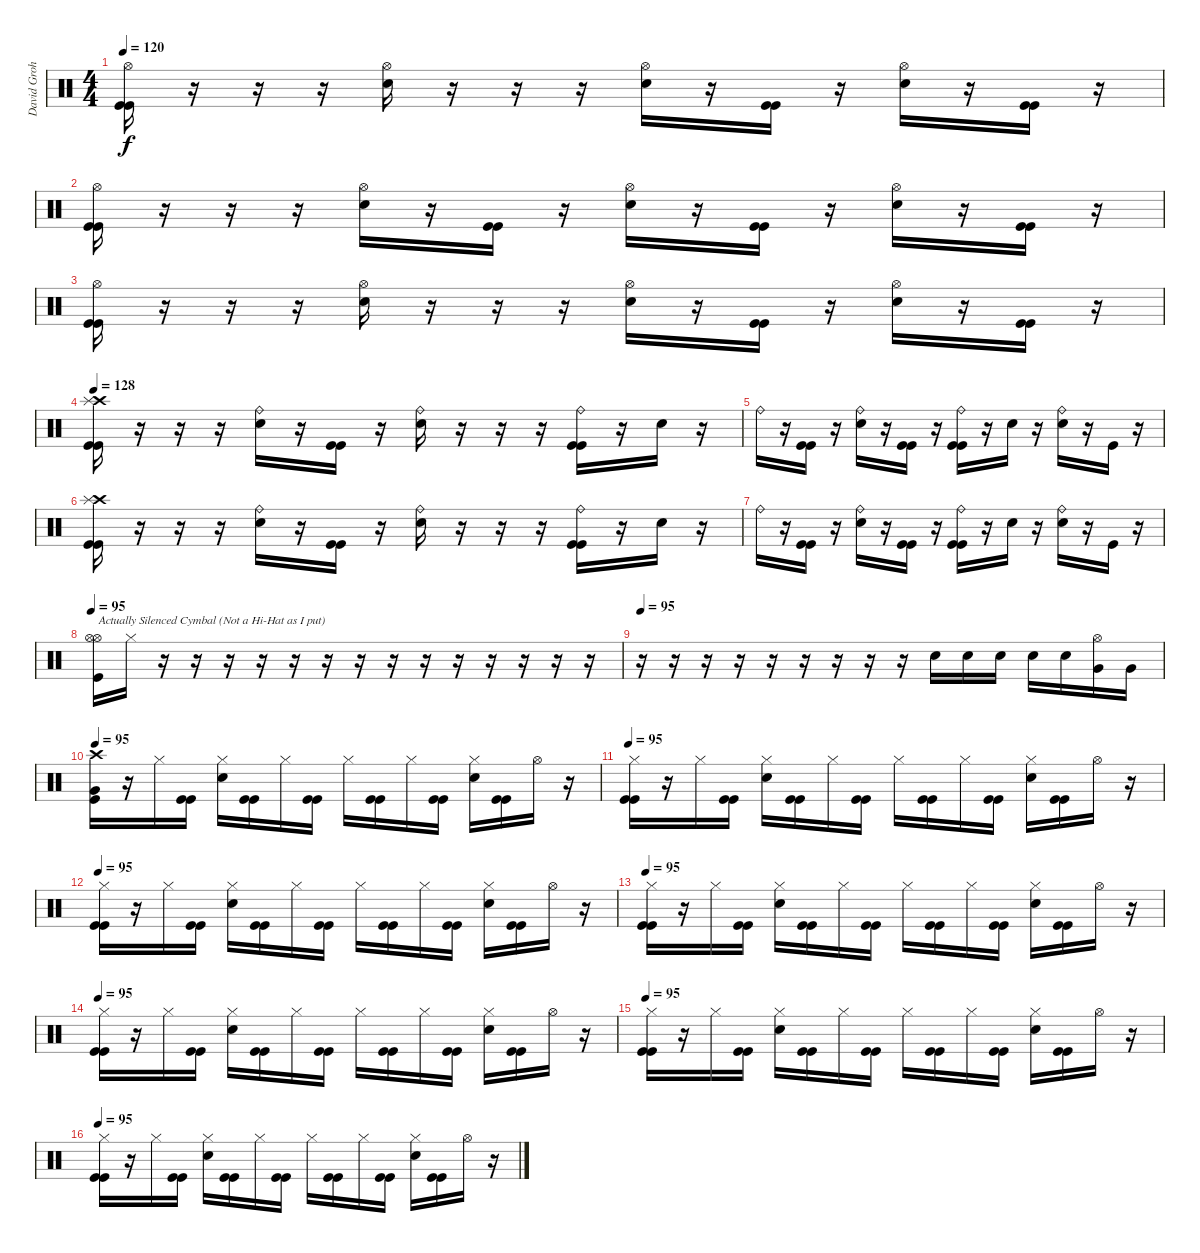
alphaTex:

\track ("David Grohl/Alfredo Ortiz" "David Groh") {instrument percussion}
\staff {score}
\articulation defaults
\ts (4 4)
\tempo 120
\clef neutral
\ks c
("Hi-Hat (open)" "Kick (hit)" "Kick (hit)").16{dy f} r.16 r.16 r.16 ("Hi-Hat (open)" "Snare (hit) 2").16 r.16 r.16 r.16 ("Hi-Hat (open)" "Snare (hit) 2").16 r.16 ("Kick (hit)" "Kick (hit)").16 r.16 ("Hi-Hat (open)" "Snare (hit) 2").16 r.16 ("Kick (hit)" "Kick (hit)").16 r.16 |
("Hi-Hat (open)" "Kick (hit)" "Kick (hit)").16 r.16 r.16 r.16 ("Hi-Hat (open)" "Snare (hit) 2").16 r.16 ("Kick (hit)" "Kick (hit)").16 r.16 ("Hi-Hat (open)" "Snare (hit) 2").16 r.16 ("Kick (hit)" "Kick (hit)").16 r.16 ("Hi-Hat (open)" "Snare (hit) 2").16 r.16 ("Kick (hit)" "Kick (hit)").16 r.16 |
("Hi-Hat (open)" "Kick (hit)" "Kick (hit)").16 r.16 r.16 r.16 ("Hi-Hat (open)" "Snare (hit) 2").16 r.16 r.16 r.16 ("Hi-Hat (open)" "Snare (hit) 2").16 r.16 ("Kick (hit)" "Kick (hit)").16 r.16 ("Hi-Hat (open)" "Snare (hit) 2").16 r.16 ("Kick (hit)" "Kick (hit)").16 r.16 |
\tempo 128
("Crash high (hit)" "Splash (hit)" "Kick (hit)" "Kick (hit)").16 r.16 r.16 r.16 ("Ride (bell)" "Snare (hit) 2").16 r.16 ("Kick (hit)" "Kick (hit)").16 r.16 ("Ride (bell)" "Snare (hit) 2").16 r.16 r.16 r.16 ("Ride (bell)" "Kick (hit)" "Kick (hit)").16 r.16 "Snare (hit) 2".16 r.16 |
"Ride (bell)".16 r.16 ("Kick (hit)" "Kick (hit)").16 r.16 ("Ride (bell)" "Snare (hit) 2").16 r.16 ("Kick (hit)" "Kick (hit)").16 r.16 ("Ride (bell)" "Kick (hit)" "Kick (hit)").16 r.16 "Snare (hit) 2".16 r.16 ("Ride (bell)" "Snare (hit) 2").16 r.16 "Kick (hit)".16 r.16 |
("Crash high (hit)" "Splash (hit)" "Kick (hit)" "Kick (hit)").16 r.16 r.16 r.16 ("Ride (bell)" "Snare (hit) 2").16 r.16 ("Kick (hit)" "Kick (hit)").16 r.16 ("Ride (bell)" "Snare (hit) 2").16 r.16 r.16 r.16 ("Ride (bell)" "Kick (hit)" "Kick (hit)").16 r.16 "Snare (hit) 2".16 r.16 |
"Ride (bell)".16 r.16 ("Kick (hit)" "Kick (hit)").16 r.16 ("Ride (bell)" "Snare (hit) 2").16 r.16 ("Kick (hit)" "Kick (hit)").16 r.16 ("Ride (bell)" "Kick (hit)" "Kick (hit)").16 r.16 "Snare (hit) 2".16 r.16 ("Ride (bell)" "Snare (hit) 2").16 r.16 "Kick (hit)".16 r.16 |
\tempo 95
("Hi-Hat (open)" "Hi-Hat (open)" "Kick (hit)").16{txt "Actually Silenced Cymbal (Not a Hi-Hat as I put)"} "Hi-Hat (closed)".16 r.16 r.16 r.16 r.16 r.16 r.16 r.16 r.16 r.16 r.16 r.16 r.16 r.16 r.16 |
\tempo 95
r.16 r.16 r.16 r.16 r.16 r.16 r.16 r.16 r.16 "Snare (hit) 2".16 "Snare (hit) 2".16 "Snare (hit) 2".16 "Snare (hit) 2".16 "Snare (hit) 2".16 ("Hi-Hat (open)" "Very Low Tom (hit)").16 "Very Low Tom (hit)".16 |
\tempo 95
("Crash high (hit)" "Very Low Tom (hit)" "Kick (hit)").16 r.16 "Hi-Hat (closed)".16 ("Kick (hit)" "Kick (hit)").16 ("Hi-Hat (closed)" "Snare (hit) 2").16 ("Kick (hit)" "Kick (hit)").16 "Hi-Hat (closed)".16 ("Kick (hit)" "Kick (hit)").16 "Hi-Hat (closed)".16 ("Kick (hit)" "Kick (hit)").16 "Hi-Hat (closed)".16 ("Kick (hit)" "Kick (hit)").16 ("Hi-Hat (closed)" "Snare (hit) 2").16 ("Kick (hit)" "Kick (hit)").16 "Hi-Hat (open)".16 r.16 |
\tempo 95
("Hi-Hat (closed)" "Kick (hit)" "Kick (hit)").16 r.16 "Hi-Hat (closed)".16 ("Kick (hit)" "Kick (hit)").16 ("Hi-Hat (closed)" "Snare (hit) 2").16 ("Kick (hit)" "Kick (hit)").16 "Hi-Hat (closed)".16 ("Kick (hit)" "Kick (hit)").16 "Hi-Hat (closed)".16 ("Kick (hit)" "Kick (hit)").16 "Hi-Hat (closed)".16 ("Kick (hit)" "Kick (hit)").16 ("Hi-Hat (closed)" "Snare (hit) 2").16 ("Kick (hit)" "Kick (hit)").16 "Hi-Hat (open)".16 r.16 |
\tempo 95
("Hi-Hat (closed)" "Kick (hit)" "Kick (hit)").16 r.16 "Hi-Hat (closed)".16 ("Kick (hit)" "Kick (hit)").16 ("Hi-Hat (closed)" "Snare (hit) 2").16 ("Kick (hit)" "Kick (hit)").16 "Hi-Hat (closed)".16 ("Kick (hit)" "Kick (hit)").16 "Hi-Hat (closed)".16 ("Kick (hit)" "Kick (hit)").16 "Hi-Hat (closed)".16 ("Kick (hit)" "Kick (hit)").16 ("Hi-Hat (closed)" "Snare (hit) 2").16 ("Kick (hit)" "Kick (hit)").16 "Hi-Hat (open)".16 r.16 |
\tempo 95
("Hi-Hat (closed)" "Kick (hit)" "Kick (hit)").16 r.16 "Hi-Hat (closed)".16 ("Kick (hit)" "Kick (hit)").16 ("Hi-Hat (closed)" "Snare (hit) 2").16 ("Kick (hit)" "Kick (hit)").16 "Hi-Hat (closed)".16 ("Kick (hit)" "Kick (hit)").16 "Hi-Hat (closed)".16 ("Kick (hit)" "Kick (hit)").16 "Hi-Hat (closed)".16 ("Kick (hit)" "Kick (hit)").16 ("Hi-Hat (closed)" "Snare (hit) 2").16 ("Kick (hit)" "Kick (hit)").16 "Hi-Hat (open)".16 r.16 |
\tempo 95
("Hi-Hat (closed)" "Kick (hit)" "Kick (hit)").16 r.16 "Hi-Hat (closed)".16 ("Kick (hit)" "Kick (hit)").16 ("Hi-Hat (closed)" "Snare (hit) 2").16 ("Kick (hit)" "Kick (hit)").16 "Hi-Hat (closed)".16 ("Kick (hit)" "Kick (hit)").16 "Hi-Hat (closed)".16 ("Kick (hit)" "Kick (hit)").16 "Hi-Hat (closed)".16 ("Kick (hit)" "Kick (hit)").16 ("Hi-Hat (closed)" "Snare (hit) 2").16 ("Kick (hit)" "Kick (hit)").16 "Hi-Hat (open)".16 r.16 |
\tempo 95
("Hi-Hat (closed)" "Kick (hit)" "Kick (hit)").16 r.16 "Hi-Hat (closed)".16 ("Kick (hit)" "Kick (hit)").16 ("Hi-Hat (closed)" "Snare (hit) 2").16 ("Kick (hit)" "Kick (hit)").16 "Hi-Hat (closed)".16 ("Kick (hit)" "Kick (hit)").16 "Hi-Hat (closed)".16 ("Kick (hit)" "Kick (hit)").16 "Hi-Hat (closed)".16 ("Kick (hit)" "Kick (hit)").16 ("Hi-Hat (closed)" "Snare (hit) 2").16 ("Kick (hit)" "Kick (hit)").16 "Hi-Hat (open)".16 r.16 |
\tempo 95
("Hi-Hat (closed)" "Kick (hit)" "Kick (hit)").16 r.16 "Hi-Hat (closed)".16 ("Kick (hit)" "Kick (hit)").16 ("Hi-Hat (closed)" "Snare (hit) 2").16 ("Kick (hit)" "Kick (hit)").16 "Hi-Hat (closed)".16 ("Kick (hit)" "Kick (hit)").16 "Hi-Hat (closed)".16 ("Kick (hit)" "Kick (hit)").16 "Hi-Hat (closed)".16 ("Kick (hit)" "Kick (hit)").16 ("Hi-Hat (closed)" "Snare (hit) 2").16 ("Kick (hit)" "Kick (hit)").16 "Hi-Hat (open)".16 r.16
